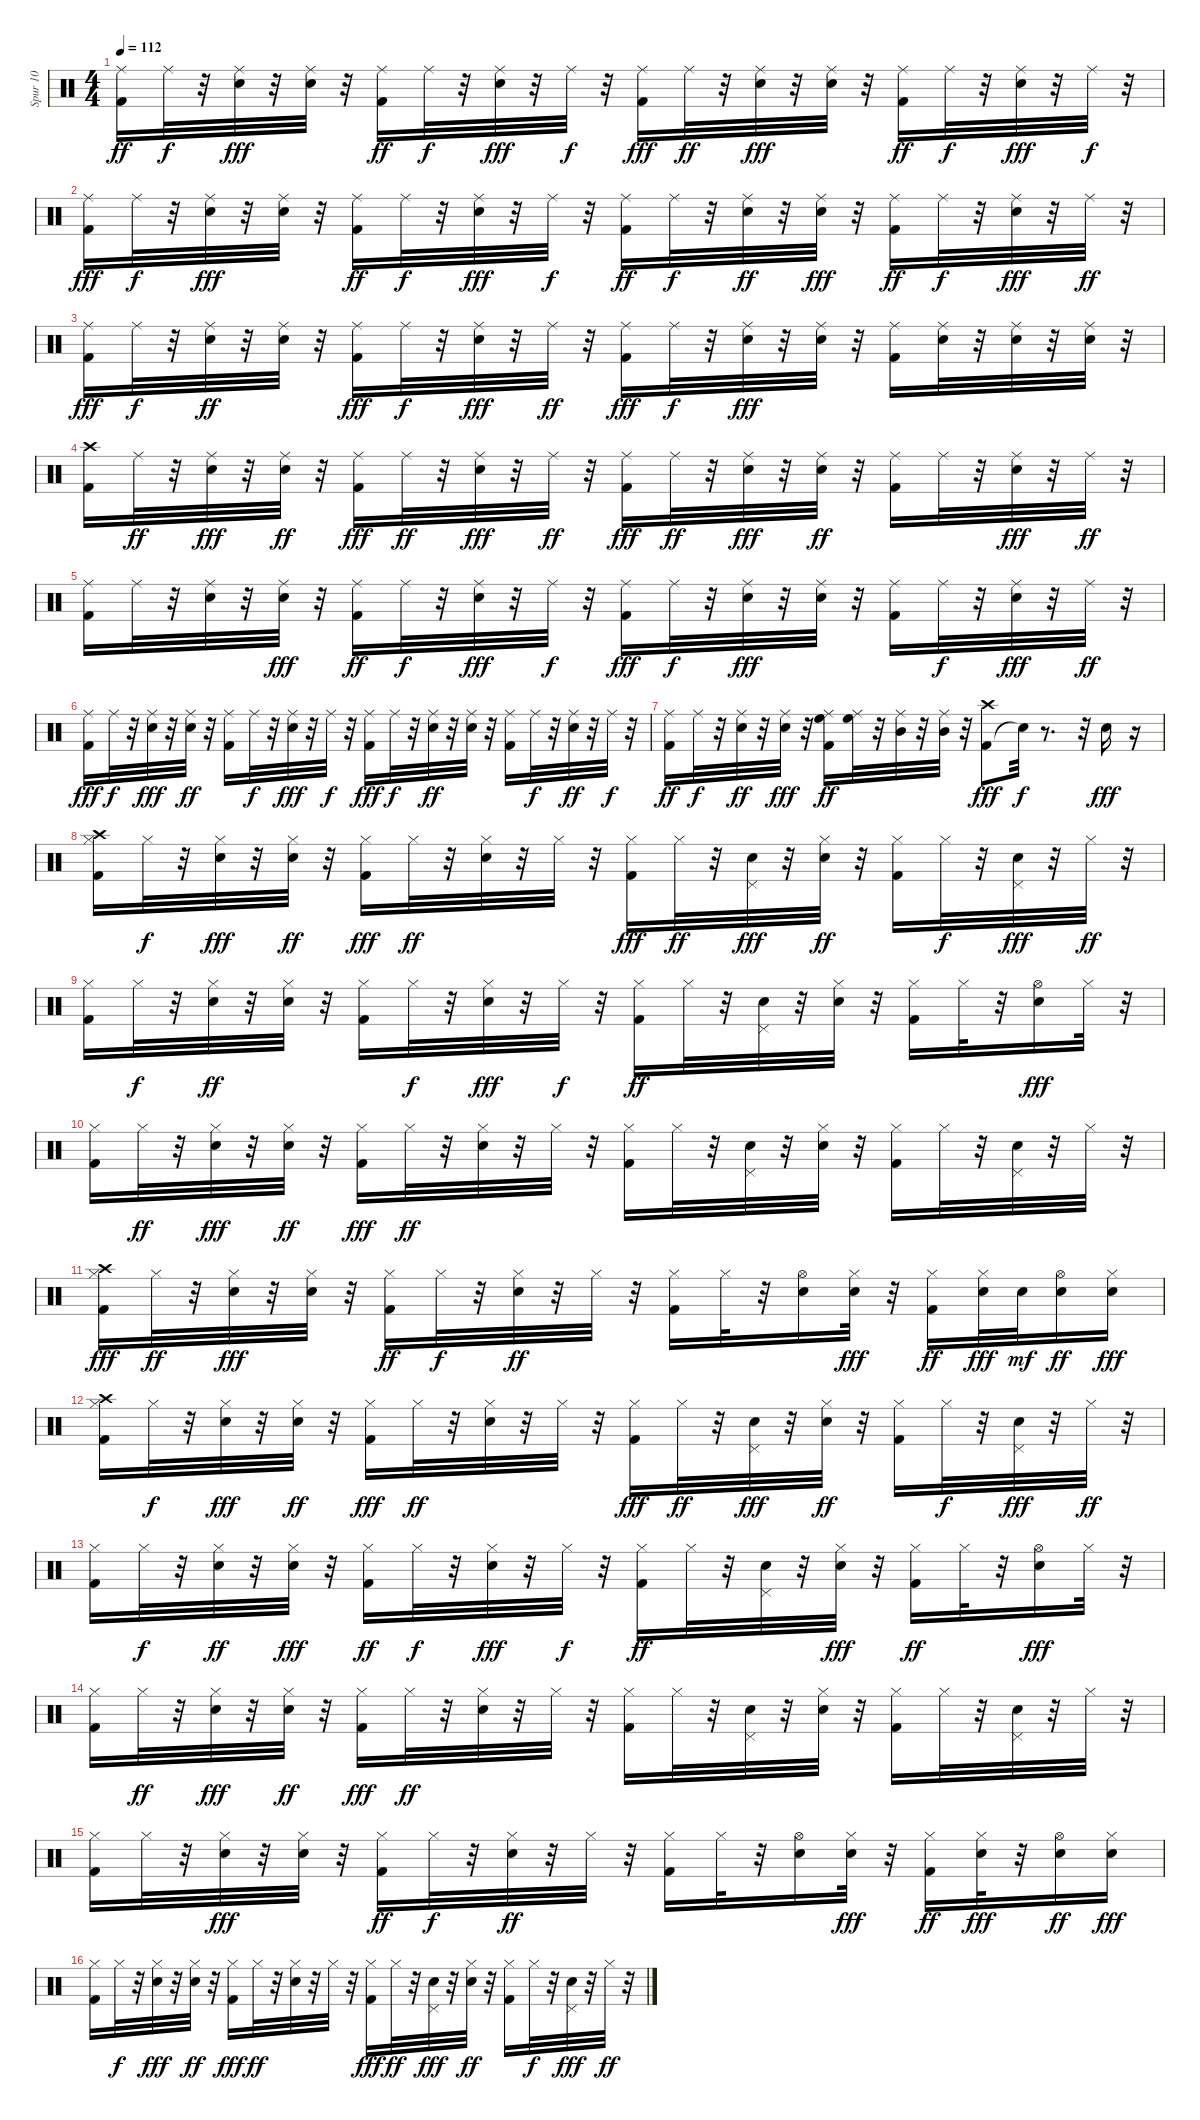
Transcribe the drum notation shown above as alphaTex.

\track ("Spur 10" "Spur 10") {instrument percussion}
\staff {score}
\articulation defaults
\ts (4 4)
\tempo 112
\clef neutral
\ks c
("Kick (hit) 2" "Ride (middle)").16{dy ff} "Ride (middle)".32{dy f} r.32 ("Electric Snare (hit)" "Ride (middle)").32{dy fff} r.32 ("Electric Snare (hit)" "Ride (middle)").32 r.32 ("Kick (hit) 2" "Ride (middle)").16{dy ff} "Ride (middle)".32{dy f} r.32 ("Electric Snare (hit)" "Ride (middle)").32{dy fff} r.32 "Ride (middle)".32{dy f} r.32 ("Kick (hit) 2" "Ride (middle)").16{dy fff} "Ride (middle)".32{dy ff} r.32 ("Electric Snare (hit)" "Ride (middle)").32{dy fff} r.32 ("Electric Snare (hit)" "Ride (middle)").32 r.32 ("Kick (hit) 2" "Ride (middle)").16{dy ff} "Ride (middle)".32{dy f} r.32 ("Electric Snare (hit)" "Ride (middle)").32{dy fff} r.32 "Ride (middle)".32{dy f} r.32 |
("Kick (hit) 2" "Ride (middle)").16{dy fff} "Ride (middle)".32{dy f} r.32 ("Electric Snare (hit)" "Ride (middle)").32{dy fff} r.32 ("Electric Snare (hit)" "Ride (middle)").32 r.32 ("Kick (hit) 2" "Ride (middle)").16{dy ff} "Ride (middle)".32{dy f} r.32 ("Electric Snare (hit)" "Ride (middle)").32{dy fff} r.32 "Ride (middle)".32{dy f} r.32 ("Kick (hit) 2" "Ride (middle)").16{dy ff} "Ride (middle)".32{dy f} r.32 ("Electric Snare (hit)" "Ride (middle)").32{dy ff} r.32 ("Electric Snare (hit)" "Ride (middle)").32{dy fff} r.32 ("Kick (hit) 2" "Ride (middle)").16{dy ff} "Ride (middle)".32{dy f} r.32 ("Electric Snare (hit)" "Ride (middle)").32{dy fff} r.32 "Ride (middle)".32{dy ff} r.32 |
("Kick (hit) 2" "Ride (middle)").16{dy fff} "Ride (middle)".32{dy f} r.32 ("Electric Snare (hit)" "Ride (middle)").32{dy ff} r.32 ("Electric Snare (hit)" "Ride (middle)").32 r.32 ("Kick (hit) 2" "Ride (middle)").16{dy fff} "Ride (middle)".32{dy f} r.32 ("Electric Snare (hit)" "Ride (middle)").32{dy fff} r.32 "Ride (middle)".32{dy ff} r.32 ("Kick (hit) 2" "Ride (middle)").16{dy fff} "Ride (middle)".32{dy f} r.32 ("Electric Snare (hit)" "Ride (middle)").32{dy fff} r.32 ("Electric Snare (hit)" "Ride (middle)").32 r.32 ("Kick (hit) 2" "Ride (middle)").16 ("Electric Snare (hit)" "Ride (middle)").32 r.32 ("Electric Snare (hit)" "Ride (middle)").32 r.32 ("Electric Snare (hit)" "Ride (middle)").32 r.32 |
("Kick (hit) 2" "Crash high (hit)").16 "Ride (middle)".32{dy ff} r.32 ("Electric Snare (hit)" "Ride (middle)").32{dy fff} r.32 ("Electric Snare (hit)" "Ride (middle)").32{dy ff} r.32 ("Kick (hit) 2" "Ride (middle)").16{dy fff} "Ride (middle)".32{dy ff} r.32 ("Electric Snare (hit)" "Ride (middle)").32{dy fff} r.32 "Ride (middle)".32{dy ff} r.32 ("Kick (hit) 2" "Ride (middle)").16{dy fff} "Ride (middle)".32{dy ff} r.32 ("Electric Snare (hit)" "Ride (middle)").32{dy fff} r.32 ("Electric Snare (hit)" "Ride (middle)").32{dy ff} r.32 ("Kick (hit) 2" "Ride (middle)").16 "Ride (middle)".32 r.32 ("Electric Snare (hit)" "Ride (middle)").32{dy fff} r.32 "Ride (middle)".32{dy ff} r.32 |
("Kick (hit) 2" "Ride (middle)").16 "Ride (middle)".32 r.32 ("Electric Snare (hit)" "Ride (middle)").32 r.32 ("Electric Snare (hit)" "Ride (middle)").32{dy fff} r.32 ("Kick (hit) 2" "Ride (middle)").16{dy ff} "Ride (middle)".32{dy f} r.32 ("Electric Snare (hit)" "Ride (middle)").32{dy fff} r.32 "Ride (middle)".32{dy f} r.32 ("Kick (hit) 2" "Ride (middle)").16{dy fff} "Ride (middle)".32{dy f} r.32 ("Electric Snare (hit)" "Ride (middle)").32{dy fff} r.32 ("Electric Snare (hit)" "Ride (middle)").32 r.32 ("Kick (hit) 2" "Ride (middle)").16 "Ride (middle)".32{dy f} r.32 ("Electric Snare (hit)" "Ride (middle)").32{dy fff} r.32 "Ride (middle)".32{dy ff} r.32 |
("Kick (hit) 2" "Ride (middle)").16{dy fff} "Ride (middle)".32{dy f} r.32 ("Electric Snare (hit)" "Ride (middle)").32{dy fff} r.32 ("Electric Snare (hit)" "Ride (middle)").32{dy ff} r.32 ("Kick (hit) 2" "Ride (middle)").16 "Ride (middle)".32{dy f} r.32 ("Electric Snare (hit)" "Ride (middle)").32{dy fff} r.32 "Ride (middle)".32{dy f} r.32 ("Kick (hit) 2" "Ride (middle)").16{dy fff} "Ride (middle)".32{dy f} r.32 ("Electric Snare (hit)" "Ride (middle)").32{dy ff} r.32 ("Electric Snare (hit)" "Ride (middle)").32 r.32 ("Kick (hit) 2" "Ride (middle)").16 "Ride (middle)".32{dy f} r.32 ("Electric Snare (hit)" "Ride (middle)").32{dy ff} r.32 "Ride (middle)".32{dy f} r.32 |
("Kick (hit) 2" "Ride (middle)").16{dy ff} "Ride (middle)".32{dy f} r.32 ("Electric Snare (hit)" "Ride (middle)").32{dy ff} r.32 ("Electric Snare (hit)" "Ride (middle)").32{dy fff} r.32 ("Kick (hit) 2" "High Floor Tom (hit)" "Ride (middle)").16{dy ff} ("High Floor Tom (hit)" "Ride (middle)").32 r.32 ("Mid Tom (hit)" "Ride (middle)").32 r.32 ("Mid Tom (hit)" "Ride (middle)").32 r.32 ("Kick (hit) 2" "Crash high (hit)").8{dy fff} "Snare (hit)"{t}.32{dy f} r.8{d} r.32 "Electric Snare (hit)".16{dy fff} r.16 |
("Kick (hit) 2" "Hi-Hat (closed)" "Crash high (hit)").16 "Hi-Hat (closed)".32{dy f} r.32 ("Electric Snare (hit)" "Hi-Hat (closed)").32{dy fff} r.32 ("Electric Snare (hit)" "Hi-Hat (closed)").32{dy ff} r.32 ("Kick (hit) 2" "Hi-Hat (closed)").16{dy fff} "Hi-Hat (closed)".32{dy ff} r.32 ("Electric Snare (hit)" "Hi-Hat (closed)").32 r.32 "Hi-Hat (closed)".32 r.32 ("Kick (hit) 2" "Hi-Hat (closed)").16{dy fff} "Hi-Hat (closed)".32{dy ff} r.32 ("Electric Snare (hit)" "Pedal Hi-Hat (hit)").32{dy fff} r.32 ("Electric Snare (hit)" "Hi-Hat (closed)").32{dy ff} r.32 ("Kick (hit) 2" "Hi-Hat (closed)").16 "Hi-Hat (closed)".32{dy f} r.32 ("Electric Snare (hit)" "Pedal Hi-Hat (hit)").32{dy fff} r.32 "Hi-Hat (closed)".32{dy ff} r.32 |
("Kick (hit) 2" "Hi-Hat (closed)").16 "Hi-Hat (closed)".32{dy f} r.32 ("Electric Snare (hit)" "Hi-Hat (closed)").32{dy ff} r.32 ("Electric Snare (hit)" "Hi-Hat (closed)").32 r.32 ("Kick (hit) 2" "Hi-Hat (closed)").16 "Hi-Hat (closed)".32{dy f} r.32 ("Electric Snare (hit)" "Hi-Hat (closed)").32{dy fff} r.32 "Hi-Hat (closed)".32{dy f} r.32 ("Kick (hit) 2" "Hi-Hat (closed)").16{dy ff} "Hi-Hat (closed)".32 r.32 ("Electric Snare (hit)" "Pedal Hi-Hat (hit)").32 r.32 ("Electric Snare (hit)" "Hi-Hat (closed)").32 r.32 ("Kick (hit) 2" "Hi-Hat (closed)").16 "Hi-Hat (closed)".32 r.32 ("Electric Snare (hit)" "Hi-Hat (open)").16{dy fff} "Hi-Hat (closed)".32 r.32 |
("Kick (hit) 2" "Hi-Hat (closed)").16 "Hi-Hat (closed)".32{dy ff} r.32 ("Electric Snare (hit)" "Hi-Hat (closed)").32{dy fff} r.32 ("Electric Snare (hit)" "Hi-Hat (closed)").32{dy ff} r.32 ("Kick (hit) 2" "Hi-Hat (closed)").16{dy fff} "Hi-Hat (closed)".32{dy ff} r.32 ("Electric Snare (hit)" "Hi-Hat (closed)").32 r.32 "Hi-Hat (closed)".32 r.32 ("Kick (hit) 2" "Hi-Hat (closed)").16 "Hi-Hat (closed)".32 r.32 ("Electric Snare (hit)" "Pedal Hi-Hat (hit)").32 r.32 ("Electric Snare (hit)" "Hi-Hat (closed)").32 r.32 ("Kick (hit) 2" "Hi-Hat (closed)").16 "Hi-Hat (closed)".32 r.32 ("Electric Snare (hit)" "Pedal Hi-Hat (hit)").32 r.32 "Hi-Hat (closed)".32 r.32 |
("Kick (hit) 2" "Hi-Hat (closed)" "Crash high (hit)").16{dy fff} "Hi-Hat (closed)".32{dy ff} r.32 ("Electric Snare (hit)" "Hi-Hat (closed)").32{dy fff} r.32 ("Electric Snare (hit)" "Hi-Hat (closed)").32 r.32 ("Kick (hit) 2" "Hi-Hat (closed)").16{dy ff} "Hi-Hat (closed)".32{dy f} r.32 ("Electric Snare (hit)" "Hi-Hat (closed)").32{dy ff} r.32 "Hi-Hat (closed)".32 r.32 ("Kick (hit) 2" "Hi-Hat (closed)").16 "Hi-Hat (closed)".32 r.32 ("Electric Snare (hit)" "Hi-Hat (open)").16 ("Electric Snare (hit)" "Hi-Hat (closed)").32{dy fff} r.32 ("Kick (hit) 2" "Hi-Hat (closed)").16{dy ff} ("Electric Snare (hit)" "Hi-Hat (closed)").32{dy fff} "Electric Snare (hit)".32{dy mf} ("Electric Snare (hit)" "Hi-Hat (open)").16{dy ff} ("Electric Snare (hit)" "Hi-Hat (closed)").16{dy fff} |
("Kick (hit) 2" "Hi-Hat (closed)" "Crash high (hit)").16 "Hi-Hat (closed)".32{dy f} r.32 ("Electric Snare (hit)" "Hi-Hat (closed)").32{dy fff} r.32 ("Electric Snare (hit)" "Hi-Hat (closed)").32{dy ff} r.32 ("Kick (hit) 2" "Hi-Hat (closed)").16{dy fff} "Hi-Hat (closed)".32{dy ff} r.32 ("Electric Snare (hit)" "Hi-Hat (closed)").32 r.32 "Hi-Hat (closed)".32 r.32 ("Kick (hit) 2" "Hi-Hat (closed)").16{dy fff} "Hi-Hat (closed)".32{dy ff} r.32 ("Electric Snare (hit)" "Pedal Hi-Hat (hit)").32{dy fff} r.32 ("Electric Snare (hit)" "Hi-Hat (closed)").32{dy ff} r.32 ("Kick (hit) 2" "Hi-Hat (closed)").16 "Hi-Hat (closed)".32{dy f} r.32 ("Electric Snare (hit)" "Pedal Hi-Hat (hit)").32{dy fff} r.32 "Hi-Hat (closed)".32{dy ff} r.32 |
("Kick (hit) 2" "Hi-Hat (closed)").16 "Hi-Hat (closed)".32{dy f} r.32 ("Electric Snare (hit)" "Hi-Hat (closed)").32{dy ff} r.32 ("Electric Snare (hit)" "Hi-Hat (closed)").32{dy fff} r.32 ("Kick (hit) 2" "Hi-Hat (closed)").16{dy ff} "Hi-Hat (closed)".32{dy f} r.32 ("Electric Snare (hit)" "Hi-Hat (closed)").32{dy fff} r.32 "Hi-Hat (closed)".32{dy f} r.32 ("Kick (hit) 2" "Hi-Hat (closed)").16{dy ff} "Hi-Hat (closed)".32 r.32 ("Electric Snare (hit)" "Pedal Hi-Hat (hit)").32 r.32 ("Electric Snare (hit)" "Hi-Hat (closed)").32{dy fff} r.32 ("Kick (hit) 2" "Hi-Hat (closed)").16{dy ff} "Hi-Hat (closed)".32 r.32 ("Electric Snare (hit)" "Hi-Hat (open)").16{dy fff} "Hi-Hat (closed)".32 r.32 |
("Kick (hit) 2" "Hi-Hat (closed)").16 "Hi-Hat (closed)".32{dy ff} r.32 ("Electric Snare (hit)" "Hi-Hat (closed)").32{dy fff} r.32 ("Electric Snare (hit)" "Hi-Hat (closed)").32{dy ff} r.32 ("Kick (hit) 2" "Hi-Hat (closed)").16{dy fff} "Hi-Hat (closed)".32{dy ff} r.32 ("Electric Snare (hit)" "Hi-Hat (closed)").32 r.32 "Hi-Hat (closed)".32 r.32 ("Kick (hit) 2" "Hi-Hat (closed)").16 "Hi-Hat (closed)".32 r.32 ("Electric Snare (hit)" "Pedal Hi-Hat (hit)").32 r.32 ("Electric Snare (hit)" "Hi-Hat (closed)").32 r.32 ("Kick (hit) 2" "Hi-Hat (closed)").16 "Hi-Hat (closed)".32 r.32 ("Electric Snare (hit)" "Pedal Hi-Hat (hit)").32 r.32 "Hi-Hat (closed)".32 r.32 |
("Kick (hit) 2" "Hi-Hat (closed)").16 "Hi-Hat (closed)".32 r.32 ("Electric Snare (hit)" "Hi-Hat (closed)").32{dy fff} r.32 ("Electric Snare (hit)" "Hi-Hat (closed)").32 r.32 ("Kick (hit) 2" "Hi-Hat (closed)").16{dy ff} "Hi-Hat (closed)".32{dy f} r.32 ("Electric Snare (hit)" "Hi-Hat (closed)").32{dy ff} r.32 "Hi-Hat (closed)".32 r.32 ("Kick (hit) 2" "Hi-Hat (closed)").16 "Hi-Hat (closed)".32 r.32 ("Electric Snare (hit)" "Hi-Hat (open)").16 ("Electric Snare (hit)" "Hi-Hat (closed)").32{dy fff} r.32 ("Kick (hit) 2" "Hi-Hat (closed)").16{dy ff} ("Electric Snare (hit)" "Hi-Hat (closed)").32{dy fff} r.32 ("Electric Snare (hit)" "Hi-Hat (open)").16{dy ff} ("Electric Snare (hit)" "Hi-Hat (closed)").16{dy fff} |
("Kick (hit) 2" "Hi-Hat (closed)").16 "Hi-Hat (closed)".32{dy f} r.32 ("Electric Snare (hit)" "Hi-Hat (closed)").32{dy fff} r.32 ("Electric Snare (hit)" "Hi-Hat (closed)").32{dy ff} r.32 ("Kick (hit) 2" "Hi-Hat (closed)").16{dy fff} "Hi-Hat (closed)".32{dy ff} r.32 ("Electric Snare (hit)" "Hi-Hat (closed)").32 r.32 "Hi-Hat (closed)".32 r.32 ("Kick (hit) 2" "Hi-Hat (closed)").16{dy fff} "Hi-Hat (closed)".32{dy ff} r.32 ("Electric Snare (hit)" "Pedal Hi-Hat (hit)").32{dy fff} r.32 ("Electric Snare (hit)" "Hi-Hat (closed)").32{dy ff} r.32 ("Kick (hit) 2" "Hi-Hat (closed)").16 "Hi-Hat (closed)".32{dy f} r.32 ("Electric Snare (hit)" "Pedal Hi-Hat (hit)").32{dy fff} r.32 "Hi-Hat (closed)".32{dy ff} r.32
